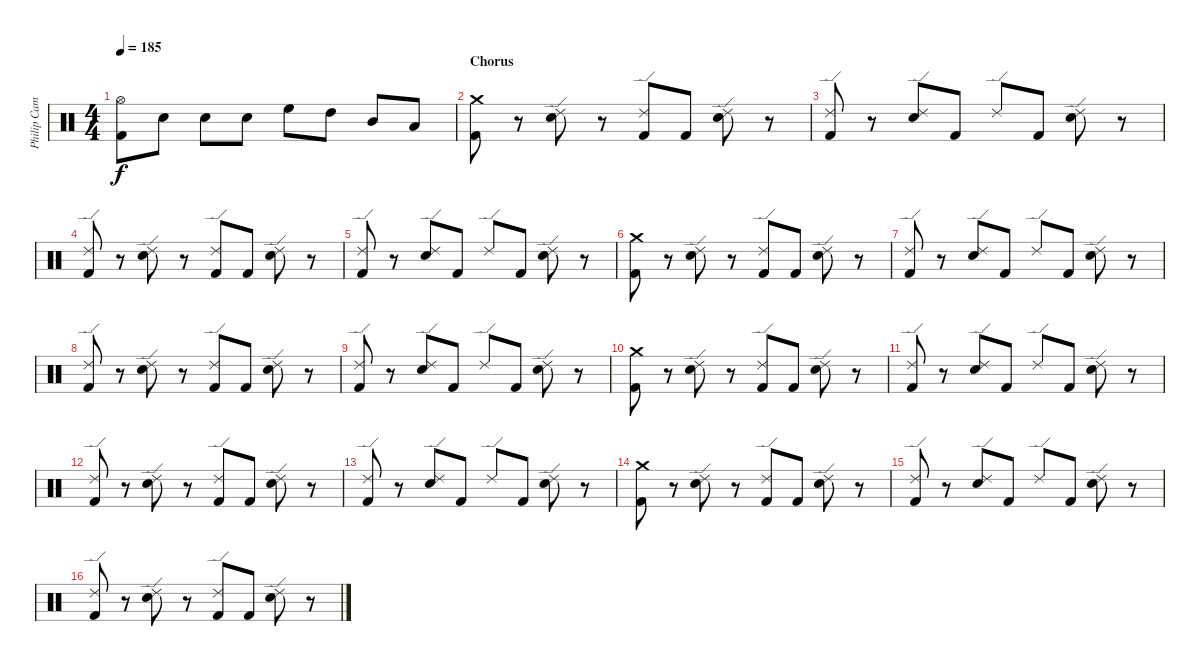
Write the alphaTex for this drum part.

\track ("Philip Campbell" "Philip Cam") {instrument percussion}
\staff {score}
\articulation defaults
\ts (4 4)
\tempo 185
\clef neutral
\ks c
("Hi-Hat (open)" "Kick (hit) 2").8{dy f} "Electric Snare (hit)".8 "Electric Snare (hit)".8 "Electric Snare (hit)".8 "High Floor Tom (hit)".8 "High Tom (hit)".8 "Mid Tom (hit)".8 "Low Tom (hit)".8 |
\section ("" "Chorus")
("Crash medium (hit)" "Kick (hit) 2").8 r.8 ("Ride (edge) 2" "Electric Snare (hit)").8 r.8 ("Ride (edge) 2" "Kick (hit) 2").8 "Kick (hit) 2".8 ("Ride (edge) 2" "Electric Snare (hit)").8 r.8 |
("Ride (edge) 2" "Kick (hit) 2").8 r.8 ("Ride (edge) 2" "Electric Snare (hit)").8 "Kick (hit) 2".8 "Ride (edge) 2".8 "Kick (hit) 2".8 ("Ride (edge) 2" "Electric Snare (hit)").8 r.8 |
("Ride (edge) 2" "Kick (hit) 2").8 r.8 ("Ride (edge) 2" "Electric Snare (hit)").8 r.8 ("Ride (edge) 2" "Kick (hit) 2").8 "Kick (hit) 2".8 ("Ride (edge) 2" "Electric Snare (hit)").8 r.8 |
("Ride (edge) 2" "Kick (hit) 2").8 r.8 ("Ride (edge) 2" "Electric Snare (hit)").8 "Kick (hit) 2".8 "Ride (edge) 2".8 "Kick (hit) 2".8 ("Ride (edge) 2" "Electric Snare (hit)").8 r.8 |
("Crash medium (hit)" "Kick (hit) 2").8 r.8 ("Ride (edge) 2" "Electric Snare (hit)").8 r.8 ("Ride (edge) 2" "Kick (hit) 2").8 "Kick (hit) 2".8 ("Ride (edge) 2" "Electric Snare (hit)").8 r.8 |
("Ride (edge) 2" "Kick (hit) 2").8 r.8 ("Ride (edge) 2" "Electric Snare (hit)").8 "Kick (hit) 2".8 "Ride (edge) 2".8 "Kick (hit) 2".8 ("Ride (edge) 2" "Electric Snare (hit)").8 r.8 |
("Ride (edge) 2" "Kick (hit) 2").8 r.8 ("Ride (edge) 2" "Electric Snare (hit)").8 r.8 ("Ride (edge) 2" "Kick (hit) 2").8 "Kick (hit) 2".8 ("Ride (edge) 2" "Electric Snare (hit)").8 r.8 |
("Ride (edge) 2" "Kick (hit) 2").8 r.8 ("Ride (edge) 2" "Electric Snare (hit)").8 "Kick (hit) 2".8 "Ride (edge) 2".8 "Kick (hit) 2".8 ("Ride (edge) 2" "Electric Snare (hit)").8 r.8 |
("Crash medium (hit)" "Kick (hit) 2").8 r.8 ("Ride (edge) 2" "Electric Snare (hit)").8 r.8 ("Ride (edge) 2" "Kick (hit) 2").8 "Kick (hit) 2".8 ("Ride (edge) 2" "Electric Snare (hit)").8 r.8 |
("Ride (edge) 2" "Kick (hit) 2").8 r.8 ("Ride (edge) 2" "Electric Snare (hit)").8 "Kick (hit) 2".8 "Ride (edge) 2".8 "Kick (hit) 2".8 ("Ride (edge) 2" "Electric Snare (hit)").8 r.8 |
("Ride (edge) 2" "Kick (hit) 2").8 r.8 ("Ride (edge) 2" "Electric Snare (hit)").8 r.8 ("Ride (edge) 2" "Kick (hit) 2").8 "Kick (hit) 2".8 ("Ride (edge) 2" "Electric Snare (hit)").8 r.8 |
("Ride (edge) 2" "Kick (hit) 2").8 r.8 ("Ride (edge) 2" "Electric Snare (hit)").8 "Kick (hit) 2".8 "Ride (edge) 2".8 "Kick (hit) 2".8 ("Ride (edge) 2" "Electric Snare (hit)").8 r.8 |
("Crash medium (hit)" "Kick (hit) 2").8 r.8 ("Ride (edge) 2" "Electric Snare (hit)").8 r.8 ("Ride (edge) 2" "Kick (hit) 2").8 "Kick (hit) 2".8 ("Ride (edge) 2" "Electric Snare (hit)").8 r.8 |
("Ride (edge) 2" "Kick (hit) 2").8 r.8 ("Ride (edge) 2" "Electric Snare (hit)").8 "Kick (hit) 2".8 "Ride (edge) 2".8 "Kick (hit) 2".8 ("Ride (edge) 2" "Electric Snare (hit)").8 r.8 |
("Ride (edge) 2" "Kick (hit) 2").8 r.8 ("Ride (edge) 2" "Electric Snare (hit)").8 r.8 ("Ride (edge) 2" "Kick (hit) 2").8 "Kick (hit) 2".8 ("Ride (edge) 2" "Electric Snare (hit)").8 r.8
